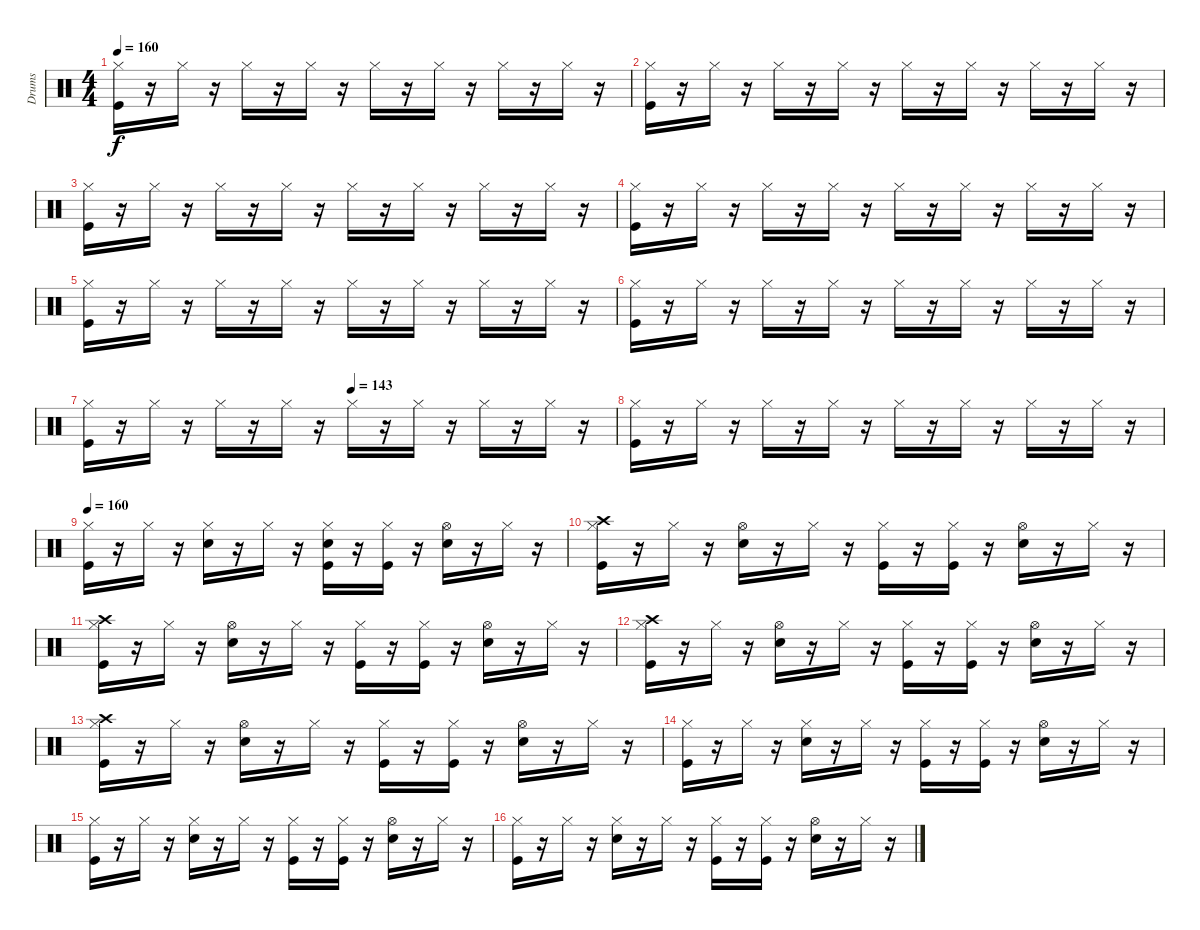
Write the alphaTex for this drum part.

\track ("Drums" "Drums") {instrument percussion}
\staff {score}
\articulation defaults
\ts (4 4)
\tempo 160
\clef neutral
\ks c
("Hi-Hat (closed)" "Kick (hit)").16{dy f} r.16 "Hi-Hat (closed)".16 r.16 "Hi-Hat (closed)".16 r.16 "Hi-Hat (closed)".16 r.16 "Hi-Hat (closed)".16 r.16 "Hi-Hat (closed)".16 r.16 "Hi-Hat (closed)".16 r.16 "Hi-Hat (closed)".16 r.16 |
("Hi-Hat (closed)" "Kick (hit)").16 r.16 "Hi-Hat (closed)".16 r.16 "Hi-Hat (closed)".16 r.16 "Hi-Hat (closed)".16 r.16 "Hi-Hat (closed)".16 r.16 "Hi-Hat (closed)".16 r.16 "Hi-Hat (closed)".16 r.16 "Hi-Hat (closed)".16 r.16 |
("Hi-Hat (closed)" "Kick (hit)").16 r.16 "Hi-Hat (closed)".16 r.16 "Hi-Hat (closed)".16 r.16 "Hi-Hat (closed)".16 r.16 "Hi-Hat (closed)".16 r.16 "Hi-Hat (closed)".16 r.16 "Hi-Hat (closed)".16 r.16 "Hi-Hat (closed)".16 r.16 |
("Hi-Hat (closed)" "Kick (hit)").16 r.16 "Hi-Hat (closed)".16 r.16 "Hi-Hat (closed)".16 r.16 "Hi-Hat (closed)".16 r.16 "Hi-Hat (closed)".16 r.16 "Hi-Hat (closed)".16 r.16 "Hi-Hat (closed)".16 r.16 "Hi-Hat (closed)".16 r.16 |
("Hi-Hat (closed)" "Kick (hit)").16 r.16 "Hi-Hat (closed)".16 r.16 "Hi-Hat (closed)".16 r.16 "Hi-Hat (closed)".16 r.16 "Hi-Hat (closed)".16 r.16 "Hi-Hat (closed)".16 r.16 "Hi-Hat (closed)".16 r.16 "Hi-Hat (closed)".16 r.16 |
("Hi-Hat (closed)" "Kick (hit)").16 r.16 "Hi-Hat (closed)".16 r.16 "Hi-Hat (closed)".16 r.16 "Hi-Hat (closed)".16 r.16 "Hi-Hat (closed)".16 r.16 "Hi-Hat (closed)".16 r.16 "Hi-Hat (closed)".16 r.16 "Hi-Hat (closed)".16 r.16 |
\tempo (143 0.5)
("Hi-Hat (closed)" "Kick (hit)").16 r.16 "Hi-Hat (closed)".16 r.16 "Hi-Hat (closed)".16 r.16 "Hi-Hat (closed)".16 r.16 "Hi-Hat (closed)".16 r.16 "Hi-Hat (closed)".16 r.16 "Hi-Hat (closed)".16 r.16 "Hi-Hat (closed)".16 r.16 |
("Hi-Hat (closed)" "Kick (hit)").16 r.16 "Hi-Hat (closed)".16 r.16 "Hi-Hat (closed)".16 r.16 "Hi-Hat (closed)".16 r.16 "Hi-Hat (closed)".16 r.16 "Hi-Hat (closed)".16 r.16 "Hi-Hat (closed)".16 r.16 "Hi-Hat (closed)".16 r.16 |
\tempo 160
("Hi-Hat (closed)" "Kick (hit)").16 r.16 "Hi-Hat (closed)".16 r.16 ("Hi-Hat (closed)" "Snare (hit) 2").16 r.16 "Hi-Hat (closed)".16 r.16 ("Snare (hit) 2" "Hi-Hat (closed)" "Kick (hit)").16 r.16 ("Kick (hit)" "Hi-Hat (closed)").16 r.16 ("Hi-Hat (open)" "Snare (hit) 2").16 r.16 "Hi-Hat (closed)".16 r.16 |
("Crash high (hit)" "Hi-Hat (closed)" "Kick (hit)").16 r.16 "Hi-Hat (closed)".16 r.16 ("Hi-Hat (open)" "Snare (hit) 2").16 r.16 "Hi-Hat (closed)".16 r.16 ("Hi-Hat (closed)" "Kick (hit)").16 r.16 ("Kick (hit)" "Hi-Hat (closed)").16 r.16 ("Hi-Hat (open)" "Snare (hit) 2").16 r.16 "Hi-Hat (closed)".16 r.16 |
("Crash high (hit)" "Hi-Hat (closed)" "Kick (hit)").16 r.16 "Hi-Hat (closed)".16 r.16 ("Hi-Hat (open)" "Snare (hit) 2").16 r.16 "Hi-Hat (closed)".16 r.16 ("Hi-Hat (closed)" "Kick (hit)").16 r.16 ("Kick (hit)" "Hi-Hat (closed)").16 r.16 ("Hi-Hat (open)" "Snare (hit) 2").16 r.16 "Hi-Hat (closed)".16 r.16 |
("Crash high (hit)" "Hi-Hat (closed)" "Kick (hit)").16 r.16 "Hi-Hat (closed)".16 r.16 ("Hi-Hat (open)" "Snare (hit) 2").16 r.16 "Hi-Hat (closed)".16 r.16 ("Hi-Hat (closed)" "Kick (hit)").16 r.16 ("Kick (hit)" "Hi-Hat (closed)").16 r.16 ("Hi-Hat (open)" "Snare (hit) 2").16 r.16 "Hi-Hat (closed)".16 r.16 |
("Crash high (hit)" "Hi-Hat (closed)" "Kick (hit)").16 r.16 "Hi-Hat (closed)".16 r.16 ("Hi-Hat (open)" "Snare (hit) 2").16 r.16 "Hi-Hat (closed)".16 r.16 ("Hi-Hat (closed)" "Kick (hit)").16 r.16 ("Kick (hit)" "Hi-Hat (closed)").16 r.16 ("Hi-Hat (open)" "Snare (hit) 2").16 r.16 "Hi-Hat (closed)".16 r.16 |
("Hi-Hat (closed)" "Kick (hit)").16 r.16 "Hi-Hat (closed)".16 r.16 ("Hi-Hat (closed)" "Snare (hit) 2").16 r.16 "Hi-Hat (closed)".16 r.16 ("Hi-Hat (closed)" "Kick (hit)").16 r.16 ("Kick (hit)" "Hi-Hat (closed)").16 r.16 ("Hi-Hat (open)" "Snare (hit) 2").16 r.16 "Hi-Hat (closed)".16 r.16 |
("Hi-Hat (closed)" "Kick (hit)").16 r.16 "Hi-Hat (closed)".16 r.16 ("Hi-Hat (closed)" "Snare (hit) 2").16 r.16 "Hi-Hat (closed)".16 r.16 ("Hi-Hat (closed)" "Kick (hit)").16 r.16 ("Kick (hit)" "Hi-Hat (closed)").16 r.16 ("Hi-Hat (open)" "Snare (hit) 2").16 r.16 "Hi-Hat (closed)".16 r.16 |
("Hi-Hat (closed)" "Kick (hit)").16 r.16 "Hi-Hat (closed)".16 r.16 ("Hi-Hat (closed)" "Snare (hit) 2").16 r.16 "Hi-Hat (closed)".16 r.16 ("Hi-Hat (closed)" "Kick (hit)").16 r.16 ("Kick (hit)" "Hi-Hat (closed)").16 r.16 ("Hi-Hat (open)" "Snare (hit) 2").16 r.16 "Hi-Hat (closed)".16 r.16
